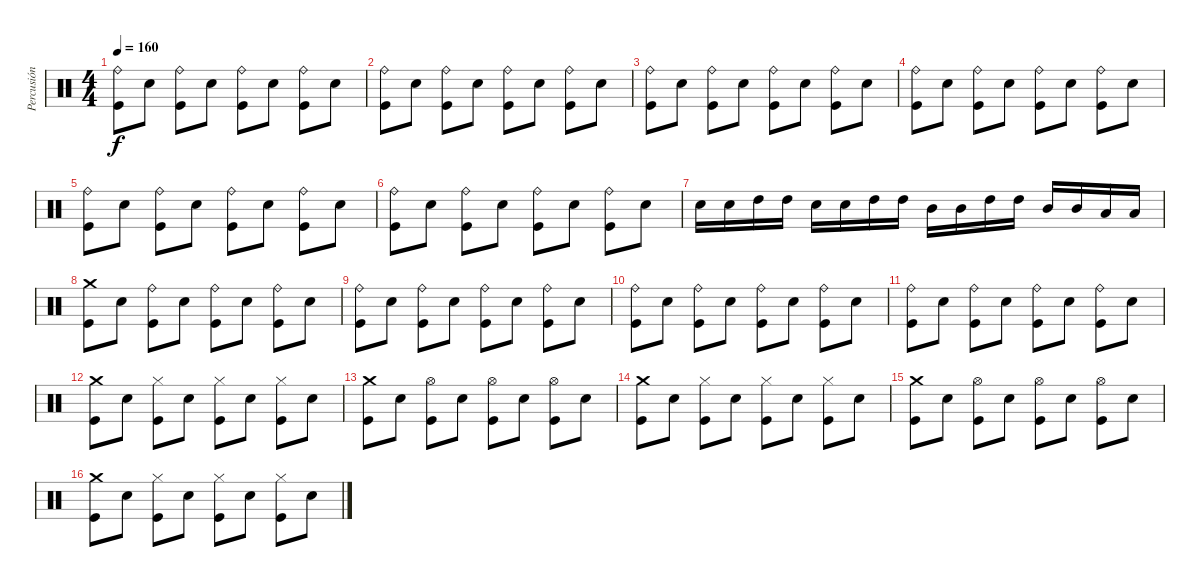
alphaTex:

\track ("Percusión" "Percusión") {instrument percussion}
\staff {score}
\articulation defaults
\ts (4 4)
\tempo 160
\clef neutral
\ks c
("Kick (hit)" "Ride (bell)").8{dy f} "Snare (hit) 2".8 ("Kick (hit)" "Ride (bell)").8 "Snare (hit) 2".8 ("Kick (hit)" "Ride (bell)").8 "Snare (hit) 2".8 ("Kick (hit)" "Ride (bell)").8 "Snare (hit) 2".8 |
("Kick (hit)" "Ride (bell)").8 "Snare (hit) 2".8 ("Kick (hit)" "Ride (bell)").8 "Snare (hit) 2".8 ("Kick (hit)" "Ride (bell)").8 "Snare (hit) 2".8 ("Kick (hit)" "Ride (bell)").8 "Snare (hit) 2".8 |
("Kick (hit)" "Ride (bell)").8 "Snare (hit) 2".8 ("Kick (hit)" "Ride (bell)").8 "Snare (hit) 2".8 ("Kick (hit)" "Ride (bell)").8 "Snare (hit) 2".8 ("Kick (hit)" "Ride (bell)").8 "Snare (hit) 2".8 |
("Kick (hit)" "Ride (bell)").8 "Snare (hit) 2".8 ("Kick (hit)" "Ride (bell)").8 "Snare (hit) 2".8 ("Kick (hit)" "Ride (bell)").8 "Snare (hit) 2".8 ("Kick (hit)" "Ride (bell)").8 "Snare (hit) 2".8 |
("Kick (hit)" "Ride (bell)").8 "Snare (hit) 2".8 ("Kick (hit)" "Ride (bell)").8 "Snare (hit) 2".8 ("Kick (hit)" "Ride (bell)").8 "Snare (hit) 2".8 ("Kick (hit)" "Ride (bell)").8 "Snare (hit) 2".8 |
("Kick (hit)" "Ride (bell)").8 "Snare (hit) 2".8 ("Kick (hit)" "Ride (bell)").8 "Snare (hit) 2".8 ("Kick (hit)" "Ride (bell)").8 "Snare (hit) 2".8 ("Kick (hit)" "Ride (bell)").8 "Snare (hit) 2".8 |
"Snare (hit) 2".16 "Snare (hit) 2".16 "High Tom (hit)".16 "High Tom (hit)".16 "Snare (hit) 2".16 "Snare (hit) 2".16 "High Tom (hit)".16 "High Tom (hit)".16 "Mid Tom (hit)".16 "Mid Tom (hit)".16 "High Tom (hit)".16 "High Tom (hit)".16 "Mid Tom (hit)".16 "Mid Tom (hit)".16 "Low Tom (hit)".16 "Low Tom (hit)".16 |
("Kick (hit)" "Crash medium (hit)").8 "Snare (hit) 2".8 ("Kick (hit)" "Ride (bell)").8 "Snare (hit) 2".8 ("Kick (hit)" "Ride (bell)").8 "Snare (hit) 2".8 ("Kick (hit)" "Ride (bell)").8 "Snare (hit) 2".8 |
("Kick (hit)" "Ride (bell)").8 "Snare (hit) 2".8 ("Kick (hit)" "Ride (bell)").8 "Snare (hit) 2".8 ("Kick (hit)" "Ride (bell)").8 "Snare (hit) 2".8 ("Kick (hit)" "Ride (bell)").8 "Snare (hit) 2".8 |
("Kick (hit)" "Ride (bell)").8 "Snare (hit) 2".8 ("Kick (hit)" "Ride (bell)").8 "Snare (hit) 2".8 ("Kick (hit)" "Ride (bell)").8 "Snare (hit) 2".8 ("Kick (hit)" "Ride (bell)").8 "Snare (hit) 2".8 |
("Kick (hit)" "Ride (bell)").8 "Snare (hit) 2".8 ("Kick (hit)" "Ride (bell)").8 "Snare (hit) 2".8 ("Kick (hit)" "Ride (bell)").8 "Snare (hit) 2".8 ("Kick (hit)" "Ride (bell)").8 "Snare (hit) 2".8 |
("Kick (hit)" "Crash medium (hit)").8 "Snare (hit) 2".8 ("Kick (hit)" "Hi-Hat (closed)").8 "Snare (hit) 2".8 ("Kick (hit)" "Hi-Hat (closed)").8 "Snare (hit) 2".8 ("Kick (hit)" "Hi-Hat (closed)").8 "Snare (hit) 2".8 |
("Kick (hit)" "Crash medium (hit)").8 "Snare (hit) 2".8 ("Kick (hit)" "Hi-Hat (open)").8 "Snare (hit) 2".8 ("Kick (hit)" "Hi-Hat (open)").8 "Snare (hit) 2".8 ("Kick (hit)" "Hi-Hat (open)").8 "Snare (hit) 2".8 |
("Kick (hit)" "Crash medium (hit)").8 "Snare (hit) 2".8 ("Kick (hit)" "Hi-Hat (closed)").8 "Snare (hit) 2".8 ("Kick (hit)" "Hi-Hat (closed)").8 "Snare (hit) 2".8 ("Kick (hit)" "Hi-Hat (closed)").8 "Snare (hit) 2".8 |
("Kick (hit)" "Crash medium (hit)").8 "Snare (hit) 2".8 ("Kick (hit)" "Hi-Hat (open)").8 "Snare (hit) 2".8 ("Kick (hit)" "Hi-Hat (open)").8 "Snare (hit) 2".8 ("Kick (hit)" "Hi-Hat (open)").8 "Snare (hit) 2".8 |
("Kick (hit)" "Crash medium (hit)").8 "Snare (hit) 2".8 ("Kick (hit)" "Hi-Hat (closed)").8 "Snare (hit) 2".8 ("Kick (hit)" "Hi-Hat (closed)").8 "Snare (hit) 2".8 ("Kick (hit)" "Hi-Hat (closed)").8 "Snare (hit) 2".8
